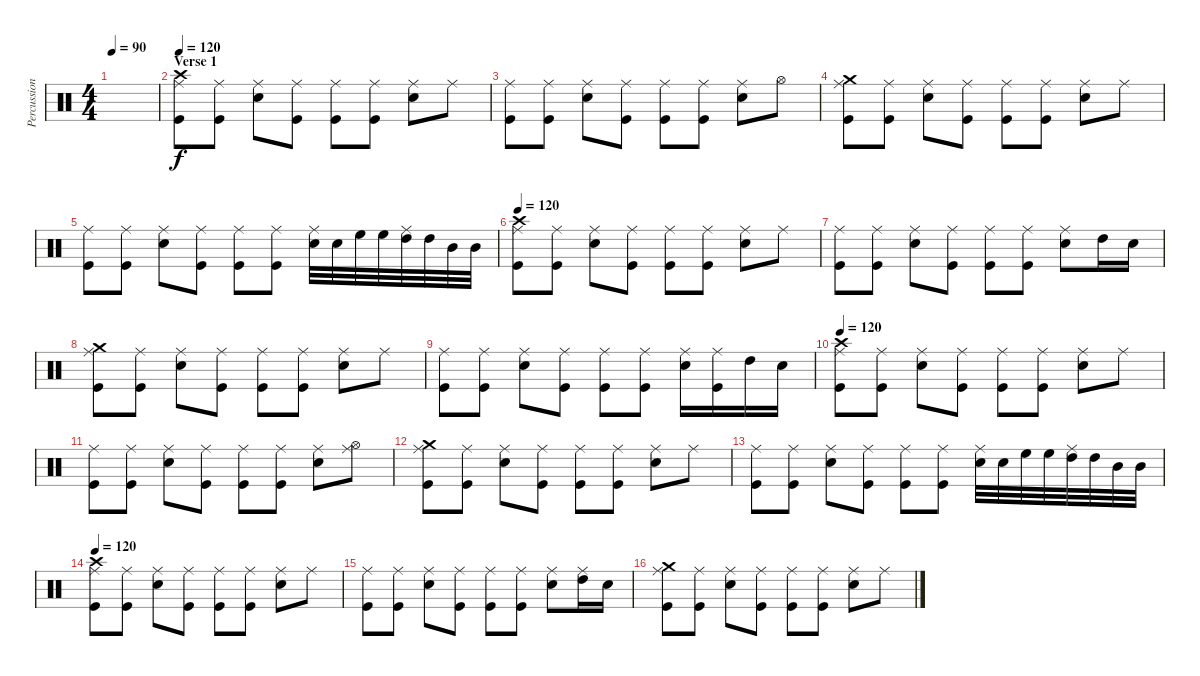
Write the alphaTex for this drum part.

\track ("Percussion" "Percussion") {instrument percussion}
\staff {score}
\articulation defaults
\ts (4 4)
\tempo 90
\clef neutral
\ks c
|
\section ("" "Verse 1")
\tempo 120
("Crash high (hit)" "Ride (middle)" "Kick (hit)").8 ("Ride (middle)" "Kick (hit)").8 ("Ride (middle)" "Snare (hit) 2").8 ("Ride (middle)" "Kick (hit)").8 ("Ride (middle)" "Kick (hit)").8 ("Ride (middle)" "Kick (hit)").8 ("Ride (middle)" "Snare (hit) 2").8 "Ride (middle)".8 |
("Ride (middle)" "Kick (hit)").8 ("Ride (middle)" "Kick (hit)").8 ("Ride (middle)" "Snare (hit) 2").8 ("Ride (middle)" "Kick (hit)").8 ("Ride (middle)" "Kick (hit)").8 ("Ride (middle)" "Kick (hit)").8 ("Ride (middle)" "Snare (hit) 2").8 "Hi-Hat (open)".8 |
("Crash medium (hit)" "Ride (middle)" "Kick (hit)").8 ("Ride (middle)" "Kick (hit)").8 ("Ride (middle)" "Snare (hit) 2").8 ("Ride (middle)" "Kick (hit)").8 ("Ride (middle)" "Kick (hit)").8 ("Ride (middle)" "Kick (hit)").8 ("Ride (middle)" "Snare (hit) 2").8 "Ride (middle)".8 |
("Ride (middle)" "Kick (hit)").8 ("Ride (middle)" "Kick (hit)").8 ("Ride (middle)" "Snare (hit) 2").8 ("Ride (middle)" "Kick (hit)").8 ("Ride (middle)" "Kick (hit)").8 ("Ride (middle)" "Kick (hit)").8 ("Ride (middle)" "Snare (hit) 2").32 "Snare (hit) 2".32 "High Floor Tom (hit)".32 "High Floor Tom (hit)".32 ("Ride (middle)" "High Tom (hit)").32 "High Tom (hit)".32 "Mid Tom (hit)".32 "Mid Tom (hit)".32 |
\tempo 120
("Crash high (hit)" "Ride (middle)" "Kick (hit)").8 ("Ride (middle)" "Kick (hit)").8 ("Ride (middle)" "Snare (hit) 2").8 ("Ride (middle)" "Kick (hit)").8 ("Ride (middle)" "Kick (hit)").8 ("Ride (middle)" "Kick (hit)").8 ("Ride (middle)" "Snare (hit) 2").8 "Ride (middle)".8 |
("Ride (middle)" "Kick (hit)").8 ("Ride (middle)" "Kick (hit)").8 ("Ride (middle)" "Snare (hit) 2").8 ("Ride (middle)" "Kick (hit)").8 ("Ride (middle)" "Kick (hit)").8 ("Ride (middle)" "Kick (hit)").8 ("Ride (middle)" "Snare (hit) 2").8 "High Tom (hit)".16 "Snare (hit) 2".16 |
("Crash medium (hit)" "Ride (middle)" "Kick (hit)").8 ("Ride (middle)" "Kick (hit)").8 ("Ride (middle)" "Snare (hit) 2").8 ("Ride (middle)" "Kick (hit)").8 ("Ride (middle)" "Kick (hit)").8 ("Ride (middle)" "Kick (hit)").8 ("Ride (middle)" "Snare (hit) 2").8 "Ride (middle)".8 |
("Ride (middle)" "Kick (hit)").8 ("Ride (middle)" "Kick (hit)").8 ("Ride (middle)" "Snare (hit) 2").8 ("Ride (middle)" "Kick (hit)").8 ("Ride (middle)" "Kick (hit)").8 ("Ride (middle)" "Kick (hit)").8 ("Ride (middle)" "Snare (hit) 2").16 ("Ride (middle)" "Kick (hit)").16 "High Tom (hit)".16 "Snare (hit) 2".16 |
\tempo 120
("Crash high (hit)" "Ride (middle)" "Kick (hit)").8 ("Ride (middle)" "Kick (hit)").8 ("Ride (middle)" "Snare (hit) 2").8 ("Ride (middle)" "Kick (hit)").8 ("Ride (middle)" "Kick (hit)").8 ("Ride (middle)" "Kick (hit)").8 ("Ride (middle)" "Snare (hit) 2").8 "Ride (middle)".8 |
("Ride (middle)" "Kick (hit)").8 ("Ride (middle)" "Kick (hit)").8 ("Ride (middle)" "Snare (hit) 2").8 ("Ride (middle)" "Kick (hit)").8 ("Ride (middle)" "Kick (hit)").8 ("Ride (middle)" "Kick (hit)").8 ("Ride (middle)" "Snare (hit) 2").8 ("Ride (middle)" "Hi-Hat (open)").8 |
("Crash medium (hit)" "Ride (middle)" "Kick (hit)").8 ("Ride (middle)" "Kick (hit)").8 ("Ride (middle)" "Snare (hit) 2").8 ("Ride (middle)" "Kick (hit)").8 ("Ride (middle)" "Kick (hit)").8 ("Ride (middle)" "Kick (hit)").8 ("Ride (middle)" "Snare (hit) 2").8 "Ride (middle)".8 |
("Ride (middle)" "Kick (hit)").8 ("Ride (middle)" "Kick (hit)").8 ("Ride (middle)" "Snare (hit) 2").8 ("Ride (middle)" "Kick (hit)").8 ("Ride (middle)" "Kick (hit)").8 ("Ride (middle)" "Kick (hit)").8 ("Ride (middle)" "Snare (hit) 2").32 "Snare (hit) 2".32 "High Floor Tom (hit)".32 "High Floor Tom (hit)".32 ("Ride (middle)" "High Tom (hit)").32 "High Tom (hit)".32 "Mid Tom (hit)".32 "Mid Tom (hit)".32 |
\tempo 120
("Crash high (hit)" "Ride (middle)" "Kick (hit)").8 ("Ride (middle)" "Kick (hit)").8 ("Ride (middle)" "Snare (hit) 2").8 ("Ride (middle)" "Kick (hit)").8 ("Ride (middle)" "Kick (hit)").8 ("Ride (middle)" "Kick (hit)").8 ("Ride (middle)" "Snare (hit) 2").8 "Ride (middle)".8 |
("Ride (middle)" "Kick (hit)").8 ("Ride (middle)" "Kick (hit)").8 ("Ride (middle)" "Snare (hit) 2").8 ("Ride (middle)" "Kick (hit)").8 ("Ride (middle)" "Kick (hit)").8 ("Ride (middle)" "Kick (hit)").8 ("Ride (middle)" "Snare (hit) 2").8 ("Ride (middle)" "High Tom (hit)").16 "Snare (hit) 2".16 |
("Crash medium (hit)" "Ride (middle)" "Kick (hit)").8 ("Ride (middle)" "Kick (hit)").8 ("Ride (middle)" "Snare (hit) 2").8 ("Ride (middle)" "Kick (hit)").8 ("Ride (middle)" "Kick (hit)").8 ("Ride (middle)" "Kick (hit)").8 ("Ride (middle)" "Snare (hit) 2").8 "Ride (middle)".8
